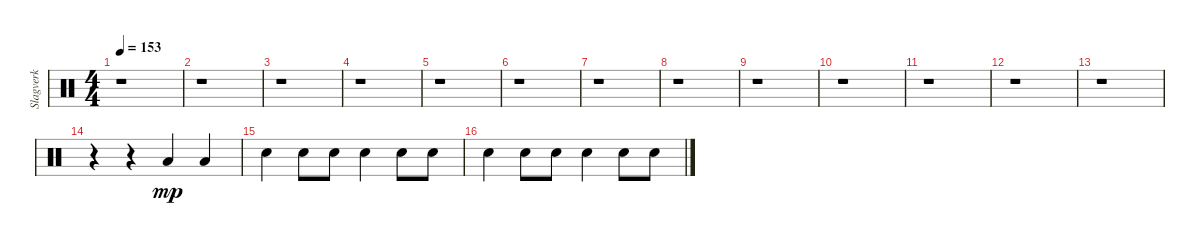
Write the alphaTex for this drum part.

\track ("Slagverk" "Slagverk") {instrument percussion}
\staff {score}
\articulation defaults
\ts (4 4)
\tempo 153
\clef neutral
\ks c
r.1{dy f} |
r.1 |
r.1 |
r.1 |
r.1 |
r.1 |
r.1 |
r.1 |
r.1 |
r.1 |
r.1 |
r.1 |
r.1 |
r.4 r.4 "Low Floor Tom (hit)".4{dy mp} "Low Floor Tom (hit)".4 |
"Snare (hit) 2".4 "Snare (hit) 2".8 "Snare (hit) 2".8 "Snare (hit) 2".4 "Snare (hit) 2".8 "Snare (hit) 2".8 |
"Snare (hit) 2".4 "Snare (hit) 2".8 "Snare (hit) 2".8 "Snare (hit) 2".4 "Snare (hit) 2".8 "Snare (hit) 2".8
